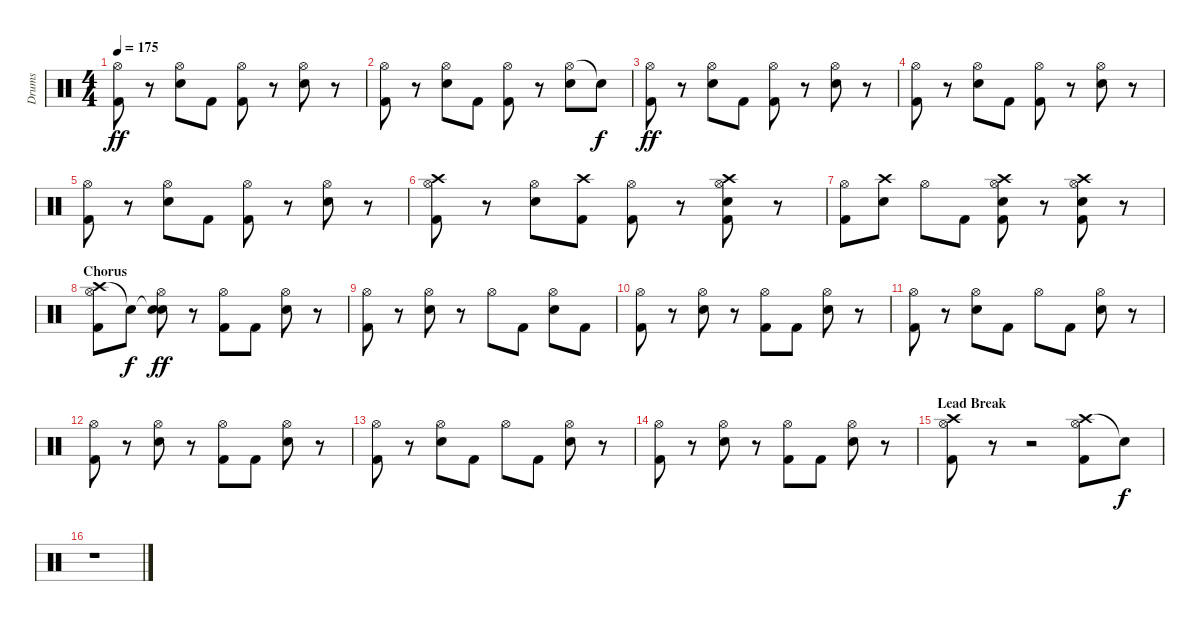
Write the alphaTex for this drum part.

\track ("Drums" "Drums") {instrument percussion}
\staff {score}
\articulation defaults
\ts (4 4)
\tempo 175
\clef neutral
\ks c
("Hi-Hat (open)" "Kick (hit) 2").8{dy ff} r.8 ("Hi-Hat (open)" "Electric Snare (hit)").8 "Kick (hit) 2".8 ("Hi-Hat (open)" "Kick (hit) 2").8 r.8 ("Hi-Hat (open)" "Electric Snare (hit)").8 r.8 |
("Hi-Hat (open)" "Kick (hit) 2").8 r.8 ("Hi-Hat (open)" "Electric Snare (hit)").8 "Kick (hit) 2".8 ("Hi-Hat (open)" "Kick (hit) 2").8 r.8 ("Hi-Hat (open)" "Electric Snare (hit)").8 "Snare (hit)"{t}.8{dy f} |
("Hi-Hat (open)" "Kick (hit) 2").8{dy ff} r.8 ("Hi-Hat (open)" "Electric Snare (hit)").8 "Kick (hit) 2".8 ("Hi-Hat (open)" "Kick (hit) 2").8 r.8 ("Hi-Hat (open)" "Electric Snare (hit)").8 r.8 |
("Hi-Hat (open)" "Kick (hit) 2").8 r.8 ("Hi-Hat (open)" "Electric Snare (hit)").8 "Kick (hit) 2".8 ("Hi-Hat (open)" "Kick (hit) 2").8 r.8 ("Hi-Hat (open)" "Electric Snare (hit)").8 r.8 |
("Hi-Hat (open)" "Kick (hit) 2").8 r.8 ("Hi-Hat (open)" "Electric Snare (hit)").8 "Kick (hit) 2".8 ("Hi-Hat (open)" "Kick (hit) 2").8 r.8 ("Hi-Hat (open)" "Electric Snare (hit)").8 r.8 |
("Crash high (hit)" "Hi-Hat (open)" "Kick (hit) 2").8 r.8 ("Hi-Hat (open)" "Electric Snare (hit)").8 ("Crash high (hit)" "Kick (hit) 2").8 ("Hi-Hat (open)" "Kick (hit) 2").8 r.8 ("Crash high (hit)" "Hi-Hat (open)" "Electric Snare (hit)" "Kick (hit) 2").8 r.8 |
("Hi-Hat (open)" "Kick (hit) 2").8 ("Crash high (hit)" "Electric Snare (hit)").8 "Hi-Hat (open)".8 "Kick (hit) 2".8 ("Crash high (hit)" "Hi-Hat (open)" "Electric Snare (hit)" "Kick (hit) 2").8 r.8 ("Crash high (hit)" "Hi-Hat (open)" "Electric Snare (hit)" "Kick (hit) 2").8 r.8 |
\section ("" "Chorus")
("Crash high (hit)" "Hi-Hat (open)" "Kick (hit) 2").8 "Snare (hit)"{t}.8{dy f} ("Snare (hit)"{t} "Hi-Hat (open)" "Electric Snare (hit)").8{dy ff} r.8 ("Hi-Hat (open)" "Kick (hit) 2").8 "Kick (hit) 2".8 ("Hi-Hat (open)" "Electric Snare (hit)").8 r.8 |
("Hi-Hat (open)" "Kick (hit) 2").8 r.8 ("Hi-Hat (open)" "Electric Snare (hit)").8 r.8 "Hi-Hat (open)".8 "Kick (hit) 2".8 ("Hi-Hat (open)" "Electric Snare (hit)").8 "Kick (hit) 2".8 |
("Hi-Hat (open)" "Kick (hit) 2").8 r.8 ("Hi-Hat (open)" "Electric Snare (hit)").8 r.8 ("Hi-Hat (open)" "Kick (hit) 2").8 "Kick (hit) 2".8 ("Hi-Hat (open)" "Electric Snare (hit)").8 r.8 |
("Hi-Hat (open)" "Kick (hit) 2").8 r.8 ("Hi-Hat (open)" "Electric Snare (hit)").8 "Kick (hit) 2".8 "Hi-Hat (open)".8 "Kick (hit) 2".8 ("Hi-Hat (open)" "Electric Snare (hit)").8 r.8 |
("Hi-Hat (open)" "Kick (hit) 2").8 r.8 ("Hi-Hat (open)" "Electric Snare (hit)").8 r.8 ("Hi-Hat (open)" "Kick (hit) 2").8 "Kick (hit) 2".8 ("Hi-Hat (open)" "Electric Snare (hit)").8 r.8 |
("Hi-Hat (open)" "Kick (hit) 2").8 r.8 ("Hi-Hat (open)" "Electric Snare (hit)").8 "Kick (hit) 2".8 "Hi-Hat (open)".8 "Kick (hit) 2".8 ("Hi-Hat (open)" "Electric Snare (hit)").8 r.8 |
("Hi-Hat (open)" "Kick (hit) 2").8 r.8 ("Hi-Hat (open)" "Electric Snare (hit)").8 r.8 ("Hi-Hat (open)" "Kick (hit) 2").8 "Kick (hit) 2".8 ("Hi-Hat (open)" "Electric Snare (hit)").8 r.8 |
\section ("" "Lead Break")
("Crash high (hit)" "Hi-Hat (open)" "Kick (hit) 2").8 r.8 r.2 ("Crash high (hit)" "Hi-Hat (open)" "Kick (hit) 2").8 "Snare (hit)"{t}.8{dy f} |
r.1
